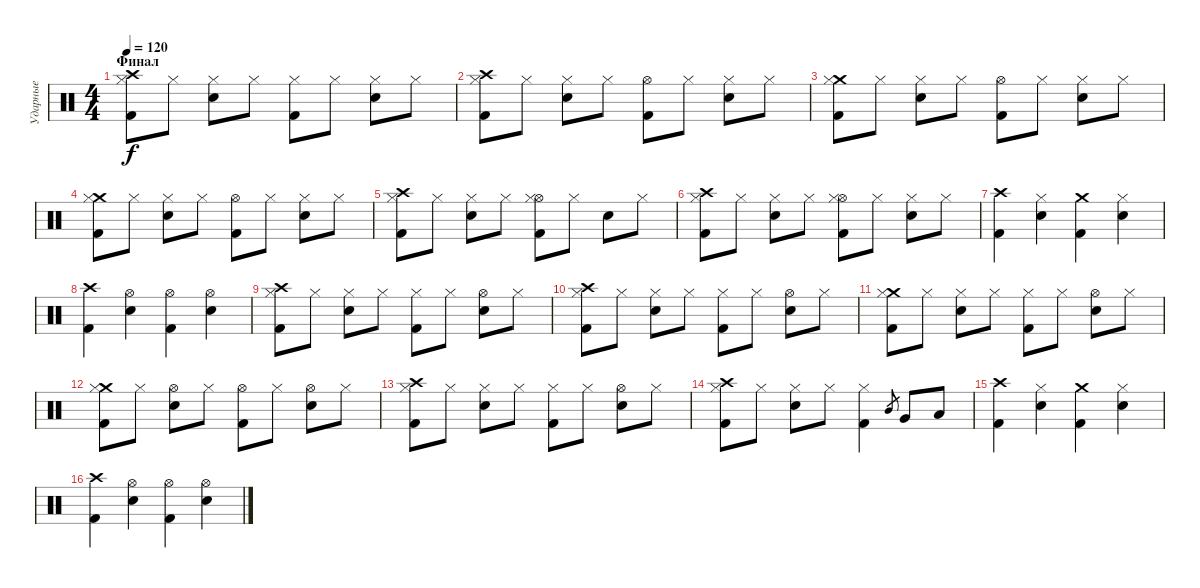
\track ("Ударные" "Ударные") {instrument percussion}
\staff {score}
\articulation defaults
\ts (4 4)
\section ("" "Финал")
\tempo 120
\clef neutral
\ks c
("Crash high (hit)" "Hi-Hat (closed)" "Kick (hit) 2").8{dy f} "Hi-Hat (closed)".8 ("Hi-Hat (closed)" "Snare (hit) 2").8 "Hi-Hat (closed)".8 ("Hi-Hat (closed)" "Kick (hit) 2").8 "Hi-Hat (closed)".8 ("Hi-Hat (closed)" "Snare (hit) 2").8 "Hi-Hat (closed)".8 |
("Crash high (hit)" "Hi-Hat (closed)" "Kick (hit) 2").8 "Hi-Hat (closed)".8 ("Hi-Hat (closed)" "Snare (hit) 2").8 "Hi-Hat (closed)".8 ("Hi-Hat (open)" "Kick (hit) 2").8 "Hi-Hat (closed)".8 ("Hi-Hat (closed)" "Snare (hit) 2").8 "Hi-Hat (closed)".8 |
("Crash medium (hit)" "Hi-Hat (closed)" "Kick (hit) 2").8 "Hi-Hat (closed)".8 ("Hi-Hat (closed)" "Snare (hit) 2").8 "Hi-Hat (closed)".8 ("Hi-Hat (open)" "Kick (hit) 2").8 "Hi-Hat (closed)".8 ("Hi-Hat (closed)" "Snare (hit) 2").8 "Hi-Hat (closed)".8 |
("Crash medium (hit)" "Hi-Hat (closed)" "Kick (hit) 2").8 "Hi-Hat (closed)".8 ("Hi-Hat (closed)" "Snare (hit) 2").8 "Hi-Hat (closed)".8 ("Hi-Hat (open)" "Kick (hit) 2").8 "Hi-Hat (closed)".8 ("Hi-Hat (closed)" "Snare (hit) 2").8 "Hi-Hat (closed)".8 |
("Crash high (hit)" "Hi-Hat (closed)" "Kick (hit) 2").8 "Hi-Hat (closed)".8 ("Hi-Hat (closed)" "Snare (hit) 2").8 "Hi-Hat (closed)".8 ("Hi-Hat (open)" "Hi-Hat (closed)" "Kick (hit) 2").8 "Hi-Hat (closed)".8 "Snare (hit) 2".8 "Hi-Hat (closed)".8 |
("Crash high (hit)" "Hi-Hat (closed)" "Kick (hit) 2").8 "Hi-Hat (closed)".8 ("Hi-Hat (closed)" "Snare (hit) 2").8 "Hi-Hat (closed)".8 ("Hi-Hat (open)" "Hi-Hat (closed)" "Kick (hit) 2").8 "Hi-Hat (closed)".8 ("Hi-Hat (closed)" "Snare (hit) 2").8 "Hi-Hat (closed)".8 |
("Crash high (hit)" "Kick (hit) 2").4 ("Hi-Hat (closed)" "Snare (hit) 2").4 ("Crash medium (hit)" "Kick (hit) 2").4 ("Hi-Hat (closed)" "Snare (hit) 2").4 |
("Crash high (hit)" "Kick (hit) 2").4 ("Hi-Hat (open)" "Snare (hit) 2").4 ("Hi-Hat (open)" "Kick (hit) 2").4 ("Hi-Hat (open)" "Snare (hit) 2").4 |
("Crash high (hit)" "Hi-Hat (closed)" "Kick (hit) 2").8 "Hi-Hat (closed)".8 ("Hi-Hat (closed)" "Snare (hit) 2").8 "Hi-Hat (closed)".8 ("Hi-Hat (closed)" "Kick (hit) 2").8 "Hi-Hat (closed)".8 ("Hi-Hat (open)" "Snare (hit) 2").8 "Hi-Hat (closed)".8 |
("Crash high (hit)" "Hi-Hat (closed)" "Kick (hit) 2").8 "Hi-Hat (closed)".8 ("Hi-Hat (closed)" "Snare (hit) 2").8 "Hi-Hat (closed)".8 ("Hi-Hat (closed)" "Kick (hit) 2").8 "Hi-Hat (closed)".8 ("Hi-Hat (open)" "Snare (hit) 2").8 "Hi-Hat (closed)".8 |
("Crash medium (hit)" "Hi-Hat (closed)" "Kick (hit) 2").8 "Hi-Hat (closed)".8 ("Hi-Hat (closed)" "Snare (hit) 2").8 "Hi-Hat (closed)".8 ("Hi-Hat (closed)" "Kick (hit) 2").8 "Hi-Hat (closed)".8 ("Hi-Hat (open)" "Snare (hit) 2").8 "Hi-Hat (closed)".8 |
("Crash medium (hit)" "Hi-Hat (closed)" "Kick (hit) 2").8 "Hi-Hat (closed)".8 ("Hi-Hat (open)" "Snare (hit) 2").8 "Hi-Hat (closed)".8 ("Hi-Hat (open)" "Kick (hit) 2").8 "Hi-Hat (closed)".8 ("Hi-Hat (open)" "Snare (hit) 2").8 "Hi-Hat (closed)".8 |
("Crash high (hit)" "Hi-Hat (closed)" "Kick (hit) 2").8 "Hi-Hat (closed)".8 ("Hi-Hat (closed)" "Snare (hit) 2").8 "Hi-Hat (closed)".8 ("Hi-Hat (closed)" "Kick (hit) 2").8 "Hi-Hat (closed)".8 ("Hi-Hat (open)" "Snare (hit) 2").8 "Hi-Hat (closed)".8 |
("Crash high (hit)" "Hi-Hat (closed)" "Kick (hit) 2").8 "Hi-Hat (closed)".8 ("Hi-Hat (closed)" "Snare (hit) 2").8 "Hi-Hat (closed)".8 ("Hi-Hat (closed)" "Kick (hit) 2").4 "Mid Tom (hit)".8{gr} "Very Low Tom (hit)".8 "Low Floor Tom (hit)".8 |
("Crash high (hit)" "Kick (hit) 2").4 ("Hi-Hat (closed)" "Snare (hit) 2").4 ("Crash medium (hit)" "Kick (hit) 2").4 ("Hi-Hat (closed)" "Snare (hit) 2").4 |
("Crash high (hit)" "Kick (hit) 2").4 ("Hi-Hat (open)" "Snare (hit) 2").4 ("Hi-Hat (open)" "Kick (hit) 2").4 ("Hi-Hat (open)" "Snare (hit) 2").4
